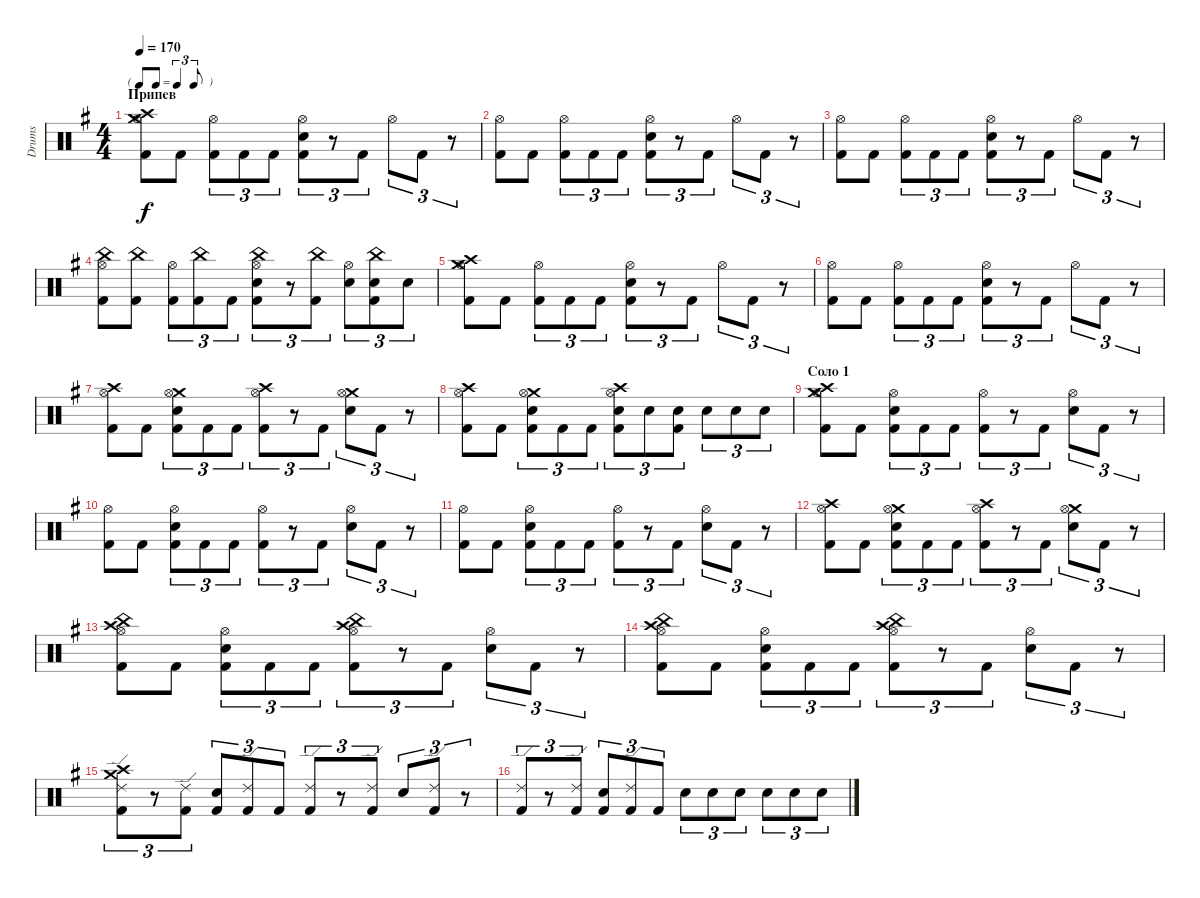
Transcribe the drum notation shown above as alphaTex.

\track ("Drums" "Drums") {instrument percussion}
\staff {score}
\articulation defaults
\ts (4 4)
\tf triplet8th
\section ("" "Припев")
\tempo 170
\clef neutral
\ks eminor
("Crash high (hit)" "Crash medium (hit)" "Hi-Hat (open)" "Kick (hit) 2").8{dy f} "Kick (hit) 2".8 ("Hi-Hat (open)" "Kick (hit) 2").8{tu (3 2)} "Kick (hit) 2".8{tu (3 2)} "Kick (hit) 2".8{tu (3 2)} ("Electric Snare (hit)" "Hi-Hat (open)" "Kick (hit) 2").8{tu (3 2)} r.8{tu (3 2)} "Kick (hit) 2".8{tu (3 2)} "Hi-Hat (open)".8{tu (3 2)} "Kick (hit) 2".8{tu (3 2)} r.8{tu (3 2)} |
("Hi-Hat (open)" "Kick (hit) 2").8 "Kick (hit) 2".8 ("Hi-Hat (open)" "Kick (hit) 2").8{tu (3 2)} "Kick (hit) 2".8{tu (3 2)} "Kick (hit) 2".8{tu (3 2)} ("Electric Snare (hit)" "Hi-Hat (open)" "Kick (hit) 2").8{tu (3 2)} r.8{tu (3 2)} "Kick (hit) 2".8{tu (3 2)} "Hi-Hat (open)".8{tu (3 2)} "Kick (hit) 2".8{tu (3 2)} r.8{tu (3 2)} |
("Hi-Hat (open)" "Kick (hit) 2").8 "Kick (hit) 2".8 ("Hi-Hat (open)" "Kick (hit) 2").8{tu (3 2)} "Kick (hit) 2".8{tu (3 2)} "Kick (hit) 2".8{tu (3 2)} ("Electric Snare (hit)" "Hi-Hat (open)" "Kick (hit) 2").8{tu (3 2)} r.8{tu (3 2)} "Kick (hit) 2".8{tu (3 2)} "Hi-Hat (open)".8{tu (3 2)} "Kick (hit) 2".8{tu (3 2)} r.8{tu (3 2)} |
("China (hit)" "Hi-Hat (open)" "Kick (hit) 2").8 ("China (hit)" "Kick (hit) 2").8 ("Hi-Hat (open)" "Kick (hit) 2").8{tu (3 2)} ("China (hit)" "Kick (hit) 2").8{tu (3 2)} "Kick (hit) 2".8{tu (3 2)} ("China (hit)" "Electric Snare (hit)" "Hi-Hat (open)" "Kick (hit) 2").8{tu (3 2)} r.8{tu (3 2)} ("China (hit)" "Kick (hit) 2").8{tu (3 2)} ("Electric Snare (hit)" "Hi-Hat (open)").8{tu (3 2)} ("China (hit)" "Electric Snare (hit)" "Kick (hit) 2").8{tu (3 2)} "Electric Snare (hit)".8{tu (3 2)} |
("Crash high (hit)" "Crash medium (hit)" "Hi-Hat (open)" "Kick (hit) 2").8 "Kick (hit) 2".8 ("Hi-Hat (open)" "Kick (hit) 2").8{tu (3 2)} "Kick (hit) 2".8{tu (3 2)} "Kick (hit) 2".8{tu (3 2)} ("Electric Snare (hit)" "Hi-Hat (open)" "Kick (hit) 2").8{tu (3 2)} r.8{tu (3 2)} "Kick (hit) 2".8{tu (3 2)} "Hi-Hat (open)".8{tu (3 2)} "Kick (hit) 2".8{tu (3 2)} r.8{tu (3 2)} |
("Hi-Hat (open)" "Kick (hit) 2").8 "Kick (hit) 2".8 ("Hi-Hat (open)" "Kick (hit) 2").8{tu (3 2)} "Kick (hit) 2".8{tu (3 2)} "Kick (hit) 2".8{tu (3 2)} ("Electric Snare (hit)" "Hi-Hat (open)" "Kick (hit) 2").8{tu (3 2)} r.8{tu (3 2)} "Kick (hit) 2".8{tu (3 2)} "Hi-Hat (open)".8{tu (3 2)} "Kick (hit) 2".8{tu (3 2)} r.8{tu (3 2)} |
("Crash high (hit)" "Hi-Hat (open)" "Kick (hit) 2").8 "Kick (hit) 2".8 ("Crash medium (hit)" "Electric Snare (hit)" "Hi-Hat (open)" "Kick (hit) 2").8{tu (3 2)} "Kick (hit) 2".8{tu (3 2)} "Kick (hit) 2".8{tu (3 2)} ("Crash high (hit)" "Hi-Hat (open)" "Kick (hit) 2").8{tu (3 2)} r.8{tu (3 2)} "Kick (hit) 2".8{tu (3 2)} ("Crash medium (hit)" "Electric Snare (hit)" "Hi-Hat (open)").8{tu (3 2)} "Kick (hit) 2".8{tu (3 2)} r.8{tu (3 2)} |
("Crash high (hit)" "Hi-Hat (open)" "Kick (hit) 2").8 "Kick (hit) 2".8 ("Crash medium (hit)" "Electric Snare (hit)" "Hi-Hat (open)" "Kick (hit) 2").8{tu (3 2)} "Kick (hit) 2".8{tu (3 2)} "Kick (hit) 2".8{tu (3 2)} ("Crash high (hit)" "Electric Snare (hit)" "Hi-Hat (open)" "Kick (hit) 2").8{tu (3 2)} "Electric Snare (hit)".8{tu (3 2)} ("Electric Snare (hit)" "Kick (hit) 2").8{tu (3 2)} "Electric Snare (hit)".8{tu (3 2)} "Electric Snare (hit)".8{tu (3 2)} "Electric Snare (hit)".8{tu (3 2)} |
\section ("" "Соло 1")
("Crash high (hit)" "Crash medium (hit)" "Hi-Hat (open)" "Kick (hit) 2").8 "Kick (hit) 2".8 ("Electric Snare (hit)" "Hi-Hat (open)" "Kick (hit) 2").8{tu (3 2)} "Kick (hit) 2".8{tu (3 2)} "Kick (hit) 2".8{tu (3 2)} ("Hi-Hat (open)" "Kick (hit) 2").8{tu (3 2)} r.8{tu (3 2)} "Kick (hit) 2".8{tu (3 2)} ("Electric Snare (hit)" "Hi-Hat (open)").8{tu (3 2)} "Kick (hit) 2".8{tu (3 2)} r.8{tu (3 2)} |
("Hi-Hat (open)" "Kick (hit) 2").8 "Kick (hit) 2".8 ("Electric Snare (hit)" "Hi-Hat (open)" "Kick (hit) 2").8{tu (3 2)} "Kick (hit) 2".8{tu (3 2)} "Kick (hit) 2".8{tu (3 2)} ("Hi-Hat (open)" "Kick (hit) 2").8{tu (3 2)} r.8{tu (3 2)} "Kick (hit) 2".8{tu (3 2)} ("Electric Snare (hit)" "Hi-Hat (open)").8{tu (3 2)} "Kick (hit) 2".8{tu (3 2)} r.8{tu (3 2)} |
("Hi-Hat (open)" "Kick (hit) 2").8 "Kick (hit) 2".8 ("Electric Snare (hit)" "Hi-Hat (open)" "Kick (hit) 2").8{tu (3 2)} "Kick (hit) 2".8{tu (3 2)} "Kick (hit) 2".8{tu (3 2)} ("Hi-Hat (open)" "Kick (hit) 2").8{tu (3 2)} r.8{tu (3 2)} "Kick (hit) 2".8{tu (3 2)} ("Electric Snare (hit)" "Hi-Hat (open)").8{tu (3 2)} "Kick (hit) 2".8{tu (3 2)} r.8{tu (3 2)} |
("Crash high (hit)" "Hi-Hat (open)" "Kick (hit) 2").8 "Kick (hit) 2".8 ("Crash medium (hit)" "Electric Snare (hit)" "Hi-Hat (open)" "Kick (hit) 2").8{tu (3 2)} "Kick (hit) 2".8{tu (3 2)} "Kick (hit) 2".8{tu (3 2)} ("Crash high (hit)" "Hi-Hat (open)" "Kick (hit) 2").8{tu (3 2)} r.8{tu (3 2)} "Kick (hit) 2".8{tu (3 2)} ("Crash medium (hit)" "Electric Snare (hit)" "Hi-Hat (open)").8{tu (3 2)} "Kick (hit) 2".8{tu (3 2)} r.8{tu (3 2)} |
("Crash high (hit)" "China (hit)" "Hi-Hat (open)" "Kick (hit) 2").8 "Kick (hit) 2".8 ("Electric Snare (hit)" "Hi-Hat (open)" "Kick (hit) 2").8{tu (3 2)} "Kick (hit) 2".8{tu (3 2)} "Kick (hit) 2".8{tu (3 2)} ("Crash high (hit)" "China (hit)" "Hi-Hat (open)" "Kick (hit) 2").8{tu (3 2)} r.8{tu (3 2)} "Kick (hit) 2".8{tu (3 2)} ("Electric Snare (hit)" "Hi-Hat (open)").8{tu (3 2)} "Kick (hit) 2".8{tu (3 2)} r.8{tu (3 2)} |
("Crash high (hit)" "China (hit)" "Hi-Hat (open)" "Kick (hit) 2").8 "Kick (hit) 2".8 ("Electric Snare (hit)" "Hi-Hat (open)" "Kick (hit) 2").8{tu (3 2)} "Kick (hit) 2".8{tu (3 2)} "Kick (hit) 2".8{tu (3 2)} ("Crash high (hit)" "China (hit)" "Hi-Hat (open)" "Kick (hit) 2").8{tu (3 2)} r.8{tu (3 2)} "Kick (hit) 2".8{tu (3 2)} ("Electric Snare (hit)" "Hi-Hat (open)").8{tu (3 2)} "Kick (hit) 2".8{tu (3 2)} r.8{tu (3 2)} |
("Crash high (hit)" "Crash medium (hit)" "Ride (edge) 2" "Kick (hit) 2").8{tu (3 2)} r.8{tu (3 2)} ("Ride (edge) 2" "Kick (hit) 2").8{tu (3 2)} ("Electric Snare (hit)" "Kick (hit) 2").8{tu (3 2)} ("Ride (edge) 2" "Kick (hit) 2").8{tu (3 2)} "Kick (hit) 2".8{tu (3 2)} ("Ride (edge) 2" "Kick (hit) 2").8{tu (3 2)} r.8{tu (3 2)} ("Ride (edge) 2" "Kick (hit) 2").8{tu (3 2)} "Electric Snare (hit)".8{tu (3 2)} ("Ride (edge) 2" "Kick (hit) 2").8{tu (3 2)} r.8{tu (3 2)} |
("Ride (edge) 2" "Kick (hit) 2").8{tu (3 2)} r.8{tu (3 2)} ("Ride (edge) 2" "Kick (hit) 2").8{tu (3 2)} ("Electric Snare (hit)" "Kick (hit) 2").8{tu (3 2)} ("Ride (edge) 2" "Kick (hit) 2").8{tu (3 2)} "Kick (hit) 2".8{tu (3 2)} "Electric Snare (hit)".8{tu (3 2)} "Electric Snare (hit)".8{tu (3 2)} "Electric Snare (hit)".8{tu (3 2)} "Electric Snare (hit)".8{tu (3 2)} "Electric Snare (hit)".8{tu (3 2)} "Electric Snare (hit)".8{tu (3 2)}
